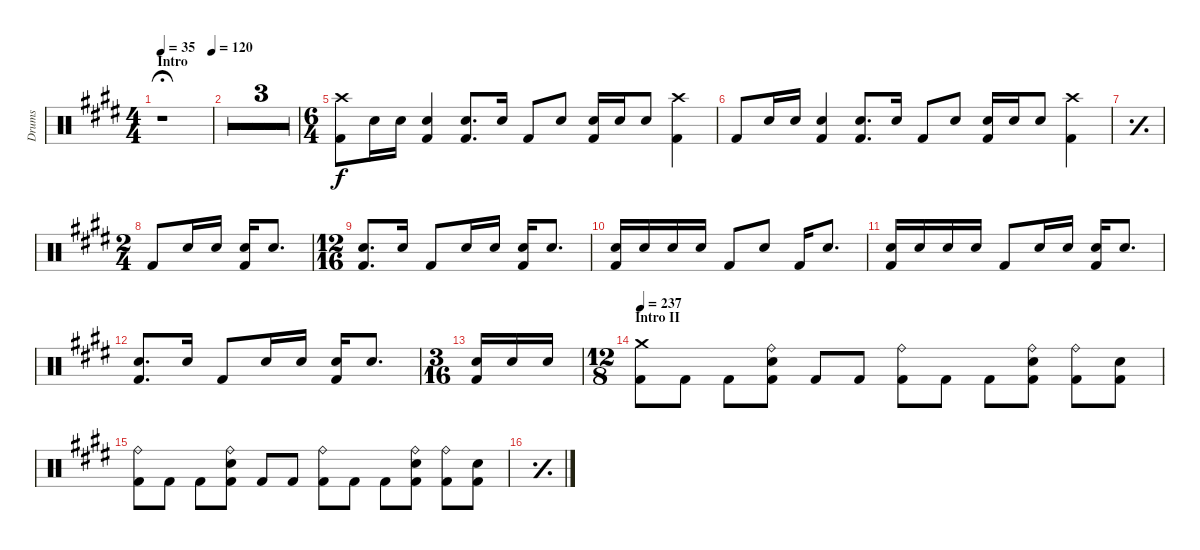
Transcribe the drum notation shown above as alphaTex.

\defaultSystemsLayout 4
\bracketExtendMode groupsimilarinstruments
\otherSystemsTrackNameOrientation horizontal
\track ("Drumkit" "Drums") {multiBarRest instrument percussion}
\staff {score}
\articulation defaults
\ts (4 4)
\section ("" "Intro")
\tempo 35
\tempo (120 1)
\clef neutral
\ks e
r.1{dy f fermata (medium 0)} |
|
|
|
\ts (6 4)
\beaming (8 2 2 2 2 2 2)
("Kick (hit) 2"{acc forcenatural} "Crash high (hit)"{acc forcenatural}).8 "Snare (hit) 2"{acc forcenatural}.16 "Snare (hit) 2"{acc forcenatural}.16 ("Snare (hit) 2"{acc forcenatural} "Kick (hit) 2"{acc forcenatural}).4 ("Snare (hit) 2"{acc forcenatural} "Kick (hit) 2"{acc forcenatural}).8{d} "Snare (hit) 2"{acc forcenatural}.16 "Kick (hit) 2"{acc forcenatural}.8 "Snare (hit) 2"{acc forcenatural}.8 ("Snare (hit) 2"{acc forcenatural} "Kick (hit) 2"{acc forcenatural}).16 "Snare (hit) 2"{acc forcenatural}.16 "Snare (hit) 2"{acc forcenatural}.8 ("Crash high (hit)"{acc forcenatural} "Kick (hit) 2"{acc forcenatural}).4 |
"Kick (hit) 2"{acc forcenatural}.8 "Snare (hit) 2"{acc forcenatural}.16 "Snare (hit) 2"{acc forcenatural}.16 ("Snare (hit) 2"{acc forcenatural} "Kick (hit) 2"{acc forcenatural}).4 ("Snare (hit) 2"{acc forcenatural} "Kick (hit) 2"{acc forcenatural}).8{d} "Snare (hit) 2"{acc forcenatural}.16 "Kick (hit) 2"{acc forcenatural}.8 "Snare (hit) 2"{acc forcenatural}.8 ("Snare (hit) 2"{acc forcenatural} "Kick (hit) 2"{acc forcenatural}).16 "Snare (hit) 2"{acc forcenatural}.16 "Snare (hit) 2"{acc forcenatural}.8 ("Crash high (hit)"{acc forcenatural} "Kick (hit) 2"{acc forcenatural}).4 |
\simile simple
|
\ts (2 4)
\simile none "Kick (hit) 2"{acc forcenatural}.8 "Snare (hit) 2"{acc forcenatural}.16 "Snare (hit) 2"{acc forcenatural}.16
("Snare (hit) 2"{acc forcenatural} "Kick (hit) 2"{acc forcenatural}).16 "Snare (hit) 2"{acc forcenatural}.8{d} |
\ts (12 16)
("Snare (hit) 2"{acc forcenatural} "Kick (hit) 2"{acc forcenatural}).8{d} "Snare (hit) 2"{acc forcenatural}.16 "Kick (hit) 2"{acc forcenatural}.8 "Snare (hit) 2"{acc forcenatural}.16 "Snare (hit) 2"{acc forcenatural}.16 ("Snare (hit) 2"{acc forcenatural} "Kick (hit) 2"{acc forcenatural}).16 "Snare (hit) 2"{acc forcenatural}.8{d} |
("Snare (hit) 2"{acc forcenatural} "Kick (hit) 2"{acc forcenatural}).16 "Snare (hit) 2"{acc forcenatural}.16 "Snare (hit) 2"{acc forcenatural}.16 "Snare (hit) 2"{acc forcenatural}.16 "Kick (hit) 2"{acc forcenatural}.8 "Snare (hit) 2"{acc forcenatural}.8 "Kick (hit) 2"{acc forcenatural}.16 "Snare (hit) 2"{acc forcenatural}.8{d} |
("Snare (hit) 2"{acc forcenatural} "Kick (hit) 2"{acc forcenatural}).16 "Snare (hit) 2"{acc forcenatural}.16 "Snare (hit) 2"{acc forcenatural}.16 "Snare (hit) 2"{acc forcenatural}.16 "Kick (hit) 2"{acc forcenatural}.8 "Snare (hit) 2"{acc forcenatural}.16 "Snare (hit) 2"{acc forcenatural}.16 ("Snare (hit) 2"{acc forcenatural} "Kick (hit) 2"{acc forcenatural}).16 "Snare (hit) 2"{acc forcenatural}.8{d} |
("Snare (hit) 2"{acc forcenatural} "Kick (hit) 2"{acc forcenatural}).8{d} "Snare (hit) 2"{acc forcenatural}.16 "Kick (hit) 2"{acc forcenatural}.8 "Snare (hit) 2"{acc forcenatural}.16 "Snare (hit) 2"{acc forcenatural}.16 ("Snare (hit) 2"{acc forcenatural} "Kick (hit) 2"{acc forcenatural}).16 "Snare (hit) 2"{acc forcenatural}.8{d} |
\ts (3 16)
("Snare (hit) 2"{acc forcenatural} "Kick (hit) 2"{acc forcenatural}).16 "Snare (hit) 2"{acc forcenatural}.16 "Snare (hit) 2"{acc forcenatural}.16 |
\ts (12 8)
\section ("" "Intro II")
\tempo 237
("Kick (hit) 2"{acc forcenatural} "Crash medium (hit)"{acc forcenatural}).8 "Kick (hit) 2"{acc forcenatural}.8 "Kick (hit) 2"{acc forcenatural}.8 ("Ride (bell)"{acc forcenatural} "Snare (hit) 2"{acc forcenatural} "Kick (hit) 2"{acc forcenatural}).8 "Kick (hit) 2"{acc forcenatural}.8 "Kick (hit) 2"{acc forcenatural}.8 ("Ride (bell)"{acc forcenatural} "Kick (hit) 2"{acc forcenatural}).8 "Kick (hit) 2"{acc forcenatural}.8 "Kick (hit) 2"{acc forcenatural}.8 ("Ride (bell)"{acc forcenatural} "Snare (hit) 2"{acc forcenatural} "Kick (hit) 2"{acc forcenatural}).8 ("Kick (hit) 2"{acc forcenatural} "Ride (bell)"{acc forcenatural}).8 ("Snare (hit) 2"{acc forcenatural} "Kick (hit) 2"{acc forcenatural}).8 |
("Ride (bell)"{acc forcenatural} "Kick (hit) 2"{acc forcenatural}).8 "Kick (hit) 2"{acc forcenatural}.8 "Kick (hit) 2"{acc forcenatural}.8 ("Ride (bell)"{acc forcenatural} "Snare (hit) 2"{acc forcenatural} "Kick (hit) 2"{acc forcenatural}).8 "Kick (hit) 2"{acc forcenatural}.8 "Kick (hit) 2"{acc forcenatural}.8 ("Ride (bell)"{acc forcenatural} "Kick (hit) 2"{acc forcenatural}).8 "Kick (hit) 2"{acc forcenatural}.8 "Kick (hit) 2"{acc forcenatural}.8 ("Ride (bell)"{acc forcenatural} "Snare (hit) 2"{acc forcenatural} "Kick (hit) 2"{acc forcenatural}).8 ("Kick (hit) 2"{acc forcenatural} "Ride (bell)"{acc forcenatural}).8 ("Snare (hit) 2"{acc forcenatural} "Kick (hit) 2"{acc forcenatural}).8 |
\simile simple
